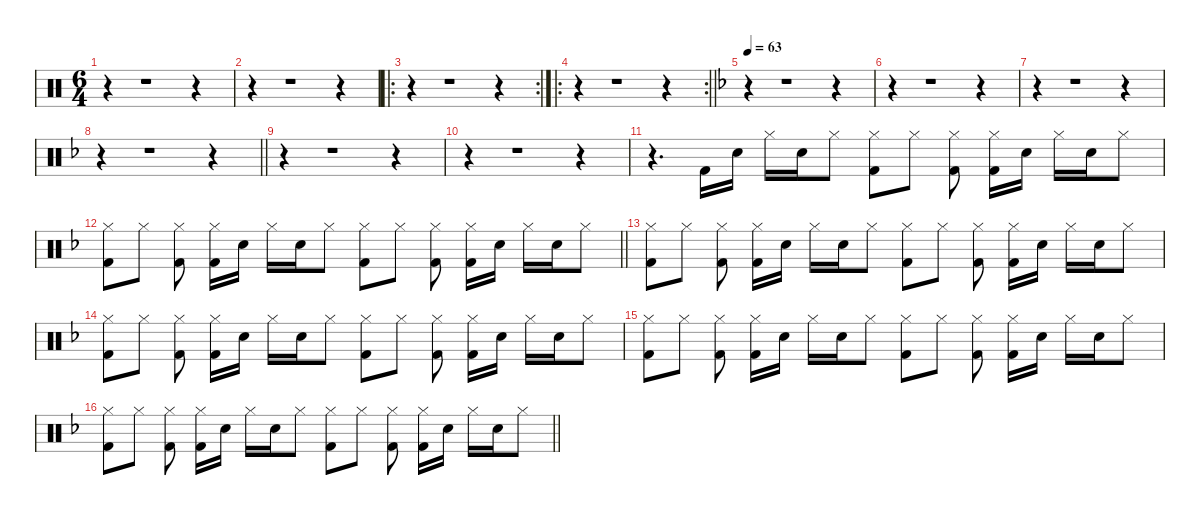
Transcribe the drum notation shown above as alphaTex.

\defaultSystemsLayout 4
\hideDynamics
\bracketExtendMode nobrackets
\singleTrackTrackNamePolicy hidden
\multiTrackTrackNamePolicy hidden
\firstSystemTrackNameMode fullname
\firstSystemTrackNameOrientation horizontal
\otherSystemsTrackNameOrientation horizontal
\track ("Percussion" "drm.") {instrument percussion}
\staff {score}
\articulation defaults
\ts (6 4)
\tempo (98 hide)
\clef neutral
\ks c
r.4{dy ff beam Down} r.1{beam Down} r.4{beam Down} |
r.4{beam Down} r.1{beam Down} r.4{beam Down} |
\ro
\rc 2
\tempo (97 hide)
r.4{beam Down} r.1{beam Down} r.4{beam Down} |
\ro
\rc 2
\barLineRight lightlight
r.4{beam Down} r.1{beam Down} r.4{beam Down} |
\tempo 63
\ks f
r.4{beam Down} r.1{beam Down} r.4{beam Down} |
r.4{beam Down} r.1{beam Down} r.4{beam Down} |
r.4{beam Down} r.1{beam Down} r.4{beam Down} |
\barLineRight lightlight
r.4{beam Down} r.1{beam Down} r.4{beam Down} |
r.4{beam Down} r.1{beam Down} r.4{beam Down} |
r.4{beam Down} r.1{beam Down} r.4{beam Down} |
r.4{d beam Down} "Kick (hit) 2"{acc forcenatural}.16{dy f beam Down} "Snare (hit) 2"{acc forcenatural}.16{beam Down} "Hi-Hat (closed)"{acc forcenatural}.16{beam Down} "Snare (hit) 2"{acc forcenatural}.16{dy mf beam Down} "Hi-Hat (closed)"{acc forcenatural}.8{beam Down} ("Hi-Hat (closed)"{acc forcenatural} "Kick (hit) 2"{acc forcenatural}).8{dy f beam Down} "Hi-Hat (closed)"{acc forcenatural}.8{beam Down} ("Hi-Hat (closed)"{acc forcenatural} "Kick (hit) 2"{acc forcenatural}).8{beam Down beam split} ("Hi-Hat (closed)"{acc forcenatural} "Kick (hit) 2"{acc forcenatural}).16{beam Down} "Snare (hit) 2"{acc forcenatural}.16{beam Down} "Hi-Hat (closed)"{acc forcenatural}.16{beam Down} "Snare (hit) 2"{acc forcenatural}.16{dy mf beam Down} "Hi-Hat (closed)"{acc forcenatural}.8{beam Down} |
\barLineRight lightlight
("Hi-Hat (closed)"{acc forcenatural} "Kick (hit) 2"{acc forcenatural}).8{dy f beam Down} "Hi-Hat (closed)"{acc forcenatural}.8{beam Down} ("Hi-Hat (closed)"{acc forcenatural} "Kick (hit) 2"{acc forcenatural}).8{beam Down beam split} ("Hi-Hat (closed)"{acc forcenatural} "Kick (hit) 2"{acc forcenatural}).16{beam Down} "Snare (hit) 2"{acc forcenatural}.16{beam Down} "Hi-Hat (closed)"{acc forcenatural}.16{beam Down} "Snare (hit) 2"{acc forcenatural}.16{dy mf beam Down} "Hi-Hat (closed)"{acc forcenatural}.8{beam Down} ("Hi-Hat (closed)"{acc forcenatural} "Kick (hit) 2"{acc forcenatural}).8{dy f beam Down} "Hi-Hat (closed)"{acc forcenatural}.8{beam Down} ("Hi-Hat (closed)"{acc forcenatural} "Kick (hit) 2"{acc forcenatural}).8{beam Down beam split} ("Hi-Hat (closed)"{acc forcenatural} "Kick (hit) 2"{acc forcenatural}).16{beam Down} "Snare (hit) 2"{acc forcenatural}.16{beam Down} "Hi-Hat (closed)"{acc forcenatural}.16{beam Down} "Snare (hit) 2"{acc forcenatural}.16{dy mf beam Down} "Hi-Hat (closed)"{acc forcenatural}.8{beam Down} |
("Hi-Hat (closed)"{acc forcenatural} "Kick (hit) 2"{acc forcenatural}).8{dy f beam Down} "Hi-Hat (closed)"{acc forcenatural}.8{beam Down} ("Hi-Hat (closed)"{acc forcenatural} "Kick (hit) 2"{acc forcenatural}).8{beam Down beam split} ("Hi-Hat (closed)"{acc forcenatural} "Kick (hit) 2"{acc forcenatural}).16{beam Down} "Snare (hit) 2"{acc forcenatural}.16{beam Down} "Hi-Hat (closed)"{acc forcenatural}.16{beam Down} "Snare (hit) 2"{acc forcenatural}.16{dy mf beam Down} "Hi-Hat (closed)"{acc forcenatural}.8{beam Down} ("Hi-Hat (closed)"{acc forcenatural} "Kick (hit) 2"{acc forcenatural}).8{dy f beam Down} "Hi-Hat (closed)"{acc forcenatural}.8{beam Down} ("Hi-Hat (closed)"{acc forcenatural} "Kick (hit) 2"{acc forcenatural}).8{beam Down beam split} ("Hi-Hat (closed)"{acc forcenatural} "Kick (hit) 2"{acc forcenatural}).16{beam Down} "Snare (hit) 2"{acc forcenatural}.16{beam Down} "Hi-Hat (closed)"{acc forcenatural}.16{beam Down} "Snare (hit) 2"{acc forcenatural}.16{dy mf beam Down} "Hi-Hat (closed)"{acc forcenatural}.8{beam Down} |
("Hi-Hat (closed)"{acc forcenatural} "Kick (hit) 2"{acc forcenatural}).8{dy f beam Down} "Hi-Hat (closed)"{acc forcenatural}.8{beam Down} ("Hi-Hat (closed)"{acc forcenatural} "Kick (hit) 2"{acc forcenatural}).8{beam Down beam split} ("Hi-Hat (closed)"{acc forcenatural} "Kick (hit) 2"{acc forcenatural}).16{beam Down} "Snare (hit) 2"{acc forcenatural}.16{beam Down} "Hi-Hat (closed)"{acc forcenatural}.16{beam Down} "Snare (hit) 2"{acc forcenatural}.16{dy mf beam Down} "Hi-Hat (closed)"{acc forcenatural}.8{beam Down} ("Hi-Hat (closed)"{acc forcenatural} "Kick (hit) 2"{acc forcenatural}).8{dy f beam Down} "Hi-Hat (closed)"{acc forcenatural}.8{beam Down} ("Hi-Hat (closed)"{acc forcenatural} "Kick (hit) 2"{acc forcenatural}).8{beam Down beam split} ("Hi-Hat (closed)"{acc forcenatural} "Kick (hit) 2"{acc forcenatural}).16{beam Down} "Snare (hit) 2"{acc forcenatural}.16{beam Down} "Hi-Hat (closed)"{acc forcenatural}.16{beam Down} "Snare (hit) 2"{acc forcenatural}.16{dy mf beam Down} "Hi-Hat (closed)"{acc forcenatural}.8{beam Down} |
("Hi-Hat (closed)"{acc forcenatural} "Kick (hit) 2"{acc forcenatural}).8{dy f beam Down} "Hi-Hat (closed)"{acc forcenatural}.8{beam Down} ("Hi-Hat (closed)"{acc forcenatural} "Kick (hit) 2"{acc forcenatural}).8{beam Down beam split} ("Hi-Hat (closed)"{acc forcenatural} "Kick (hit) 2"{acc forcenatural}).16{beam Down} "Snare (hit) 2"{acc forcenatural}.16{beam Down} "Hi-Hat (closed)"{acc forcenatural}.16{beam Down} "Snare (hit) 2"{acc forcenatural}.16{dy mf beam Down} "Hi-Hat (closed)"{acc forcenatural}.8{beam Down} ("Hi-Hat (closed)"{acc forcenatural} "Kick (hit) 2"{acc forcenatural}).8{dy f beam Down} "Hi-Hat (closed)"{acc forcenatural}.8{beam Down} ("Hi-Hat (closed)"{acc forcenatural} "Kick (hit) 2"{acc forcenatural}).8{beam Down beam split} ("Hi-Hat (closed)"{acc forcenatural} "Kick (hit) 2"{acc forcenatural}).16{beam Down} "Snare (hit) 2"{acc forcenatural}.16{beam Down} "Hi-Hat (closed)"{acc forcenatural}.16{beam Down} "Snare (hit) 2"{acc forcenatural}.16{dy mf beam Down} "Hi-Hat (closed)"{acc forcenatural}.8{beam Down} |
\barLineRight lightlight
("Hi-Hat (closed)"{acc forcenatural} "Kick (hit) 2"{acc forcenatural}).8{dy f beam Down} "Hi-Hat (closed)"{acc forcenatural}.8{beam Down} ("Hi-Hat (closed)"{acc forcenatural} "Kick (hit) 2"{acc forcenatural}).8{beam Down beam split} ("Hi-Hat (closed)"{acc forcenatural} "Kick (hit) 2"{acc forcenatural}).16{beam Down} "Snare (hit) 2"{acc forcenatural}.16{beam Down} "Hi-Hat (closed)"{acc forcenatural}.16{beam Down} "Snare (hit) 2"{acc forcenatural}.16{dy mf beam Down} "Hi-Hat (closed)"{acc forcenatural}.8{beam Down} ("Hi-Hat (closed)"{acc forcenatural} "Kick (hit) 2"{acc forcenatural}).8{dy f beam Down} "Hi-Hat (closed)"{acc forcenatural}.8{beam Down} ("Hi-Hat (closed)"{acc forcenatural} "Kick (hit) 2"{acc forcenatural}).8{beam Down beam split} ("Hi-Hat (closed)"{acc forcenatural} "Kick (hit) 2"{acc forcenatural}).16{beam Down} "Snare (hit) 2"{acc forcenatural}.16{beam Down} "Hi-Hat (closed)"{acc forcenatural}.16{beam Down} "Snare (hit) 2"{acc forcenatural}.16{dy mf beam Down} "Hi-Hat (closed)"{acc forcenatural}.8{beam Down}
